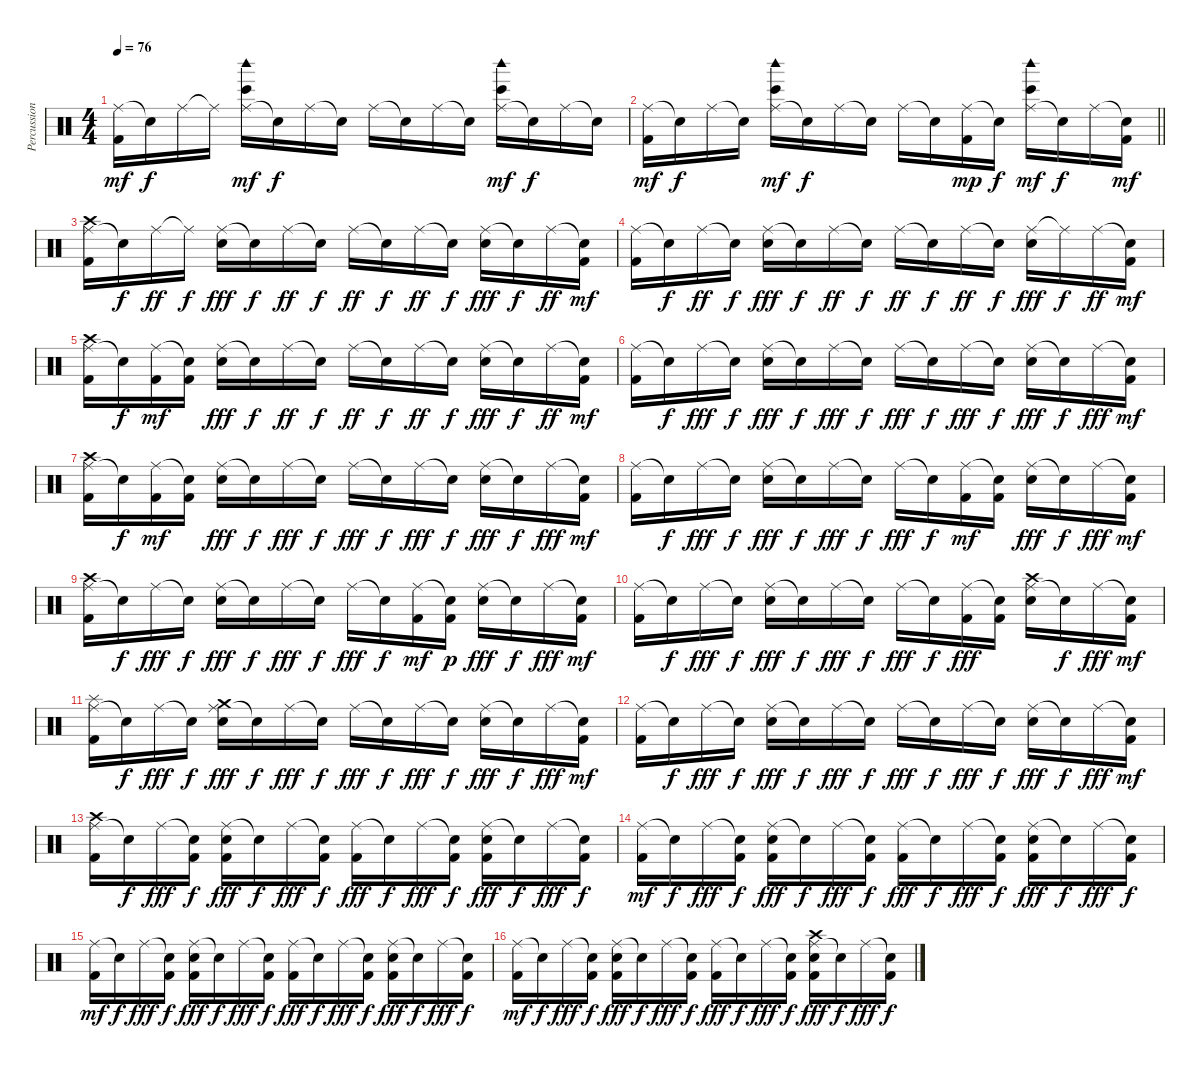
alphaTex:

\track ("Percussion" "Percussion") {instrument percussion}
\staff {score}
\articulation defaults
\ts (4 4)
\tempo 76
\clef neutral
\ks c
("Ride (middle)" "Kick (hit) 2").16{dy mf} "Snare (hit)"{t}.16{dy f} "Ride (middle)".16 "Ride (middle)"{t}.16 ("Ride (middle)" "Woodblock high (hit)" "Bongo High (hit)").16{dy mf} "Snare (hit)"{t}.16{dy f} "Ride (middle)".16 "Snare (hit)"{t}.16 "Ride (middle)".16 "Snare (hit)"{t}.16 "Ride (middle)".16 "Snare (hit)"{t}.16 ("Ride (middle)" "Woodblock high (hit)" "Bongo High (hit)").16{dy mf} "Snare (hit)"{t}.16{dy f} "Ride (middle)".16 "Snare (hit)"{t}.16 |
\barLineRight lightlight
("Ride (middle)" "Kick (hit) 2").16{dy mf} "Snare (hit)"{t}.16{dy f} "Ride (middle)".16 "Snare (hit)"{t}.16 ("Ride (middle)" "Woodblock high (hit)" "Bongo High (hit)").16{dy mf} "Snare (hit)"{t}.16{dy f} "Ride (middle)".16 "Snare (hit)"{t}.16 "Ride (middle)".16 "Snare (hit)"{t}.16 ("Ride (middle)" "Kick (hit) 2").16{dy mp} "Snare (hit)"{t}.16{dy f} ("Ride (middle)" "Woodblock high (hit)" "Bongo High (hit)").16{dy mf} "Snare (hit)"{t}.16{dy f} "Ride (middle)".16 ("Snare (hit)"{t} "Kick (hit) 2").16{dy mf} |
("Ride (middle)" "Crash high (hit)" "Kick (hit) 2").16 "Snare (hit)"{t}.16{dy f} "Ride (middle)".16{dy ff} "Ride (middle)"{t}.16{dy f} ("Ride (middle)" "Electric Snare (hit)").16{dy fff} "Snare (hit)"{t}.16{dy f} "Ride (middle)".16{dy ff} "Snare (hit)"{t}.16{dy f} "Ride (middle)".16{dy ff} "Snare (hit)"{t}.16{dy f} "Ride (middle)".16{dy ff} "Snare (hit)"{t}.16{dy f} ("Ride (middle)" "Electric Snare (hit)").16{dy fff} "Snare (hit)"{t}.16{dy f} "Ride (middle)".16{dy ff} ("Snare (hit)"{t} "Kick (hit) 2").16{dy mf} |
("Ride (middle)" "Kick (hit) 2").16 "Snare (hit)"{t}.16{dy f} "Ride (middle)".16{dy ff} "Snare (hit)"{t}.16{dy f} ("Ride (middle)" "Electric Snare (hit)").16{dy fff} "Snare (hit)"{t}.16{dy f} "Ride (middle)".16{dy ff} "Snare (hit)"{t}.16{dy f} "Ride (middle)".16{dy ff} "Snare (hit)"{t}.16{dy f} "Ride (middle)".16{dy ff} "Snare (hit)"{t}.16{dy f} ("Ride (middle)" "Electric Snare (hit)").16{dy fff} "Ride (middle)"{t}.16{dy f} "Ride (middle)".16{dy ff} ("Snare (hit)"{t} "Kick (hit) 2").16{dy mf} |
("Ride (middle)" "Crash high (hit)" "Kick (hit) 2").16 "Snare (hit)"{t}.16{dy f} ("Ride (middle)" "Kick (hit) 2").16{dy mf} ("Snare (hit)"{t} "Kick (hit) 2").16 ("Ride (middle)" "Electric Snare (hit)").16{dy fff} "Snare (hit)"{t}.16{dy f} "Ride (middle)".16{dy ff} "Snare (hit)"{t}.16{dy f} "Ride (middle)".16{dy ff} "Snare (hit)"{t}.16{dy f} "Ride (middle)".16{dy ff} "Snare (hit)"{t}.16{dy f} ("Ride (middle)" "Electric Snare (hit)").16{dy fff} "Snare (hit)"{t}.16{dy f} "Ride (middle)".16{dy ff} ("Snare (hit)"{t} "Kick (hit) 2").16{dy mf} |
("Ride (middle)" "Kick (hit) 2").16 "Snare (hit)"{t}.16{dy f} "Ride (middle)".16{dy fff} "Snare (hit)"{t}.16{dy f} ("Ride (middle)" "Electric Snare (hit)").16{dy fff} "Snare (hit)"{t}.16{dy f} "Ride (middle)".16{dy fff} "Snare (hit)"{t}.16{dy f} "Ride (middle)".16{dy fff} "Snare (hit)"{t}.16{dy f} "Ride (middle)".16{dy fff} "Snare (hit)"{t}.16{dy f} ("Ride (middle)" "Electric Snare (hit)").16{dy fff} "Snare (hit)"{t}.16{dy f} "Ride (middle)".16{dy fff} ("Snare (hit)"{t} "Kick (hit) 2").16{dy mf} |
("Ride (middle)" "Crash high (hit)" "Kick (hit) 2").16 "Snare (hit)"{t}.16{dy f} ("Ride (middle)" "Kick (hit) 2").16{dy mf} ("Snare (hit)"{t} "Kick (hit) 2").16 ("Ride (middle)" "Electric Snare (hit)").16{dy fff} "Snare (hit)"{t}.16{dy f} "Ride (middle)".16{dy fff} "Snare (hit)"{t}.16{dy f} "Ride (middle)".16{dy fff} "Snare (hit)"{t}.16{dy f} "Ride (middle)".16{dy fff} "Snare (hit)"{t}.16{dy f} ("Ride (middle)" "Electric Snare (hit)").16{dy fff} "Snare (hit)"{t}.16{dy f} "Ride (middle)".16{dy fff} ("Snare (hit)"{t} "Kick (hit) 2").16{dy mf} |
("Ride (middle)" "Kick (hit) 2").16 "Snare (hit)"{t}.16{dy f} "Ride (middle)".16{dy fff} "Snare (hit)"{t}.16{dy f} ("Ride (middle)" "Electric Snare (hit)").16{dy fff} "Snare (hit)"{t}.16{dy f} "Ride (middle)".16{dy fff} "Snare (hit)"{t}.16{dy f} "Ride (middle)".16{dy fff} "Snare (hit)"{t}.16{dy f} ("Ride (middle)" "Kick (hit) 2").16{dy mf} ("Snare (hit)"{t} "Kick (hit) 2").16 ("Ride (middle)" "Electric Snare (hit)").16{dy fff} "Snare (hit)"{t}.16{dy f} "Ride (middle)".16{dy fff} ("Snare (hit)"{t} "Kick (hit) 2").16{dy mf} |
("Ride (middle)" "Crash high (hit)" "Kick (hit) 2").16 "Snare (hit)"{t}.16{dy f} "Ride (middle)".16{dy fff} "Snare (hit)"{t}.16{dy f} ("Ride (middle)" "Electric Snare (hit)").16{dy fff} "Snare (hit)"{t}.16{dy f} "Ride (middle)".16{dy fff} "Snare (hit)"{t}.16{dy f} "Ride (middle)".16{dy fff} "Snare (hit)"{t}.16{dy f} ("Ride (middle)" "Kick (hit) 2").16{dy mf} ("Snare (hit)"{t} "Kick (hit) 2").16{dy p} ("Ride (middle)" "Electric Snare (hit)").16{dy fff} "Snare (hit)"{t}.16{dy f} "Ride (middle)".16{dy fff} ("Snare (hit)"{t} "Kick (hit) 2").16{dy mf} |
("Ride (middle)" "Kick (hit) 2").16 "Snare (hit)"{t}.16{dy f} "Ride (middle)".16{dy fff} "Snare (hit)"{t}.16{dy f} ("Ride (middle)" "Electric Snare (hit)").16{dy fff} "Snare (hit)"{t}.16{dy f} "Ride (middle)".16{dy fff} "Snare (hit)"{t}.16{dy f} "Ride (middle)".16{dy fff} "Snare (hit)"{t}.16{dy f} ("Ride (middle)" "Kick (hit) 2").16{dy fff} ("Snare (hit)"{t} "Kick (hit) 2").16 ("Ride (middle)" "Crash high (hit)" "Electric Snare (hit)").16 "Snare (hit)"{t}.16{dy f} "Ride (middle)".16{dy fff} ("Snare (hit)"{t} "Kick (hit) 2").16{dy mf} |
("Ride (middle)" "Splash (hit)" "Kick (hit) 2").16 "Snare (hit)"{t}.16{dy f} "Ride (middle)".16{dy fff} "Snare (hit)"{t}.16{dy f} ("Ride (middle)" "Crash medium (hit)" "Electric Snare (hit)").16{dy fff} "Snare (hit)"{t}.16{dy f} "Ride (middle)".16{dy fff} "Snare (hit)"{t}.16{dy f} "Ride (middle)".16{dy fff} "Snare (hit)"{t}.16{dy f} "Ride (middle)".16{dy fff} "Snare (hit)"{t}.16{dy f} ("Ride (middle)" "Electric Snare (hit)").16{dy fff} "Snare (hit)"{t}.16{dy f} "Ride (middle)".16{dy fff} ("Snare (hit)"{t} "Kick (hit) 2").16{dy mf} |
("Ride (middle)" "Kick (hit) 2").16 "Snare (hit)"{t}.16{dy f} "Ride (middle)".16{dy fff} "Snare (hit)"{t}.16{dy f} ("Ride (middle)" "Electric Snare (hit)").16{dy fff} "Snare (hit)"{t}.16{dy f} "Ride (middle)".16{dy fff} "Snare (hit)"{t}.16{dy f} "Ride (middle)".16{dy fff} "Snare (hit)"{t}.16{dy f} "Ride (middle)".16{dy fff} "Snare (hit)"{t}.16{dy f} ("Ride (middle)" "Electric Snare (hit)").16{dy fff} "Snare (hit)"{t}.16{dy f} "Ride (middle)".16{dy fff} ("Snare (hit)"{t} "Kick (hit) 2").16{dy mf} |
("Ride (middle)" "Crash high (hit)" "Kick (hit) 2").16 "Snare (hit)"{t}.16{dy f} "Ride (middle)".16{dy fff} ("Snare (hit)"{t} "Kick (hit) 2").16{dy f} ("Ride (middle)" "Electric Snare (hit)" "Kick (hit) 2").16{dy fff} "Snare (hit)"{t}.16{dy f} "Ride (middle)".16{dy fff} ("Snare (hit)"{t} "Kick (hit) 2").16{dy f} ("Ride (middle)" "Kick (hit) 2").16{dy fff} "Snare (hit)"{t}.16{dy f} "Ride (middle)".16{dy fff} ("Snare (hit)"{t} "Kick (hit) 2").16{dy f} ("Ride (middle)" "Electric Snare (hit)" "Kick (hit) 2").16{dy fff} "Snare (hit)"{t}.16{dy f} "Ride (middle)".16{dy fff} ("Snare (hit)"{t} "Kick (hit) 2").16{dy f} |
("Ride (middle)" "Kick (hit) 2").16{dy mf} "Snare (hit)"{t}.16{dy f} "Ride (middle)".16{dy fff} ("Snare (hit)"{t} "Kick (hit) 2").16{dy f} ("Ride (middle)" "Electric Snare (hit)" "Kick (hit) 2").16{dy fff} "Snare (hit)"{t}.16{dy f} "Ride (middle)".16{dy fff} ("Snare (hit)"{t} "Kick (hit) 2").16{dy f} ("Ride (middle)" "Kick (hit) 2").16{dy fff} "Snare (hit)"{t}.16{dy f} "Ride (middle)".16{dy fff} ("Snare (hit)"{t} "Kick (hit) 2").16{dy f} ("Ride (middle)" "Electric Snare (hit)" "Kick (hit) 2").16{dy fff} "Snare (hit)"{t}.16{dy f} "Ride (middle)".16{dy fff} ("Snare (hit)"{t} "Kick (hit) 2").16{dy f} |
("Ride (middle)" "Kick (hit) 2").16{dy mf} "Snare (hit)"{t}.16{dy f} "Ride (middle)".16{dy fff} ("Snare (hit)"{t} "Kick (hit) 2").16{dy f} ("Ride (middle)" "Electric Snare (hit)" "Kick (hit) 2").16{dy fff} "Snare (hit)"{t}.16{dy f} "Ride (middle)".16{dy fff} ("Snare (hit)"{t} "Kick (hit) 2").16{dy f} ("Ride (middle)" "Kick (hit) 2").16{dy fff} "Snare (hit)"{t}.16{dy f} "Ride (middle)".16{dy fff} ("Snare (hit)"{t} "Kick (hit) 2").16{dy f} ("Ride (middle)" "Electric Snare (hit)" "Kick (hit) 2").16{dy fff} "Snare (hit)"{t}.16{dy f} "Ride (middle)".16{dy fff} ("Snare (hit)"{t} "Kick (hit) 2").16{dy f} |
("Ride (middle)" "Kick (hit) 2").16{dy mf} "Snare (hit)"{t}.16{dy f} "Ride (middle)".16{dy fff} ("Snare (hit)"{t} "Kick (hit) 2").16{dy f} ("Ride (middle)" "Electric Snare (hit)" "Kick (hit) 2").16{dy fff} "Snare (hit)"{t}.16{dy f} "Ride (middle)".16{dy fff} ("Snare (hit)"{t} "Kick (hit) 2").16{dy f} ("Ride (middle)" "Kick (hit) 2").16{dy fff} "Snare (hit)"{t}.16{dy f} "Ride (middle)".16{dy fff} ("Snare (hit)"{t} "Kick (hit) 2").16{dy f} ("Ride (middle)" "Crash high (hit)" "Electric Snare (hit)" "Kick (hit) 2").16{dy fff} "Snare (hit)"{t}.16{dy f} "Ride (middle)".16{dy fff} ("Snare (hit)"{t} "Kick (hit) 2").16{dy f}
